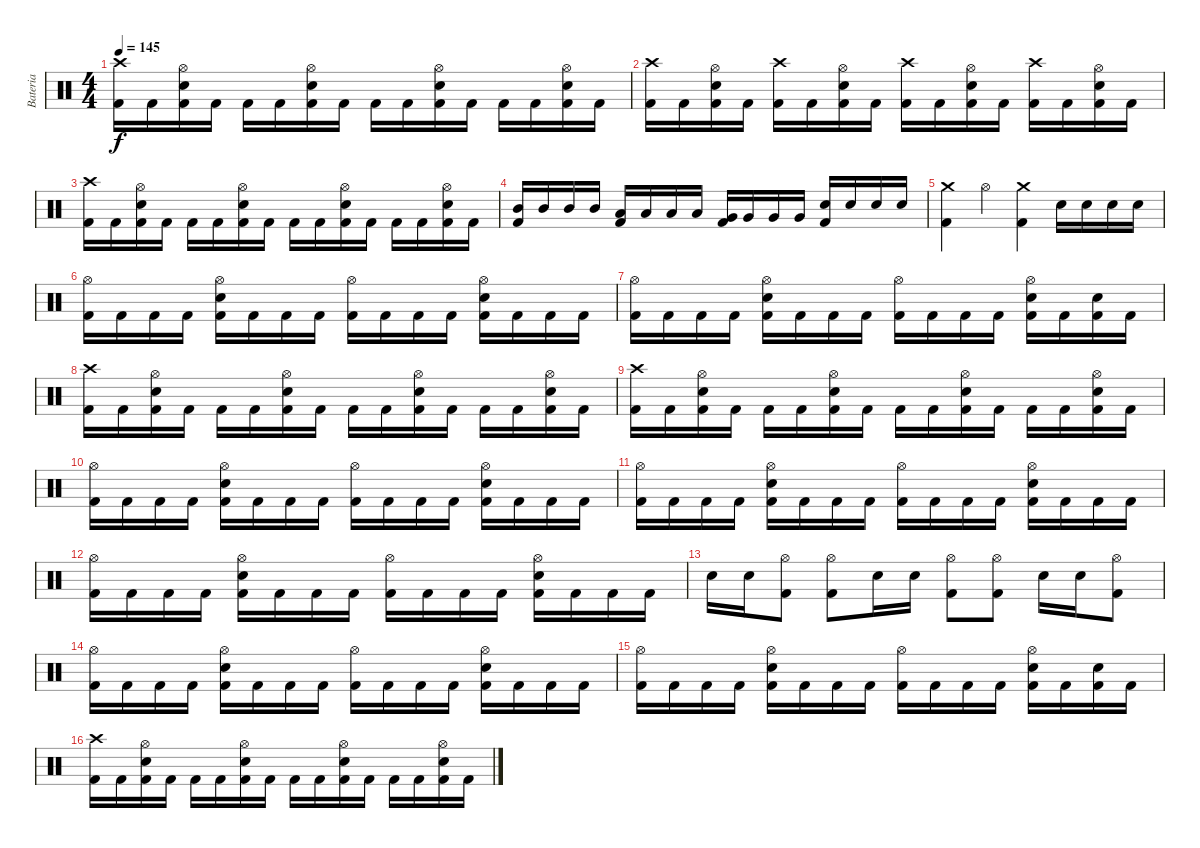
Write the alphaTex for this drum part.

\track ("Bateria" "Bateria") {instrument percussion}
\staff {score}
\articulation defaults
\ts (4 4)
\tempo 145
\clef neutral
\ks c
("Crash high (hit)" "Kick (hit) 2").16{dy f} "Kick (hit) 2".16 ("Snare (hit) 2" "Hi-Hat (open)" "Kick (hit) 2").16 "Kick (hit) 2".16 "Kick (hit) 2".16 "Kick (hit) 2".16 ("Snare (hit) 2" "Hi-Hat (open)" "Kick (hit) 2").16 "Kick (hit) 2".16 "Kick (hit) 2".16 "Kick (hit) 2".16 ("Snare (hit) 2" "Hi-Hat (open)" "Kick (hit) 2").16 "Kick (hit) 2".16 "Kick (hit) 2".16 "Kick (hit) 2".16 ("Snare (hit) 2" "Hi-Hat (open)" "Kick (hit) 2").16 "Kick (hit) 2".16 |
("Crash high (hit)" "Kick (hit) 2").16 "Kick (hit) 2".16 ("Snare (hit) 2" "Hi-Hat (open)" "Kick (hit) 2").16 "Kick (hit) 2".16 ("Crash high (hit)" "Kick (hit) 2").16 "Kick (hit) 2".16 ("Snare (hit) 2" "Hi-Hat (open)" "Kick (hit) 2").16 "Kick (hit) 2".16 ("Crash high (hit)" "Kick (hit) 2").16 "Kick (hit) 2".16 ("Snare (hit) 2" "Hi-Hat (open)" "Kick (hit) 2").16 "Kick (hit) 2".16 ("Crash high (hit)" "Kick (hit) 2").16 "Kick (hit) 2".16 ("Snare (hit) 2" "Hi-Hat (open)" "Kick (hit) 2").16 "Kick (hit) 2".16 |
("Crash high (hit)" "Kick (hit) 2").16 "Kick (hit) 2".16 ("Snare (hit) 2" "Hi-Hat (open)" "Kick (hit) 2").16 "Kick (hit) 2".16 "Kick (hit) 2".16 "Kick (hit) 2".16 ("Snare (hit) 2" "Hi-Hat (open)" "Kick (hit) 2").16 "Kick (hit) 2".16 "Kick (hit) 2".16 "Kick (hit) 2".16 ("Snare (hit) 2" "Hi-Hat (open)" "Kick (hit) 2").16 "Kick (hit) 2".16 "Kick (hit) 2".16 "Kick (hit) 2".16 ("Snare (hit) 2" "Hi-Hat (open)" "Kick (hit) 2").16 "Kick (hit) 2".16 |
("Kick (hit) 2" "Mid Tom (hit)").16 "Mid Tom (hit)".16 "Mid Tom (hit)".16 "Mid Tom (hit)".16 ("Kick (hit) 2" "Low Tom (hit)").16 "Low Tom (hit)".16 "Low Tom (hit)".16 "Low Tom (hit)".16 ("Kick (hit) 2" "Very Low Tom (hit)").16 "Very Low Tom (hit)".16 "Very Low Tom (hit)".16 "Very Low Tom (hit)".16 ("Kick (hit) 2" "Snare (hit) 2").16 "Snare (hit) 2".16 "Snare (hit) 2".16 "Snare (hit) 2".16 |
("Crash medium (hit)" "Kick (hit) 2").4 "Hi-Hat (open)".4 ("Crash medium (hit)" "Kick (hit) 2").4 "Snare (hit) 2".16 "Snare (hit) 2".16 "Snare (hit) 2".16 "Snare (hit) 2".16 |
("Hi-Hat (open)" "Kick (hit) 2").16 "Kick (hit) 2".16 "Kick (hit) 2".16 "Kick (hit) 2".16 ("Snare (hit) 2" "Hi-Hat (open)" "Kick (hit) 2").16 "Kick (hit) 2".16 "Kick (hit) 2".16 "Kick (hit) 2".16 ("Hi-Hat (open)" "Kick (hit) 2").16 "Kick (hit) 2".16 "Kick (hit) 2".16 "Kick (hit) 2".16 ("Snare (hit) 2" "Hi-Hat (open)" "Kick (hit) 2").16 "Kick (hit) 2".16 "Kick (hit) 2".16 "Kick (hit) 2".16 |
("Hi-Hat (open)" "Kick (hit) 2").16 "Kick (hit) 2".16 "Kick (hit) 2".16 "Kick (hit) 2".16 ("Snare (hit) 2" "Hi-Hat (open)" "Kick (hit) 2").16 "Kick (hit) 2".16 "Kick (hit) 2".16 "Kick (hit) 2".16 ("Hi-Hat (open)" "Kick (hit) 2").16 "Kick (hit) 2".16 "Kick (hit) 2".16 "Kick (hit) 2".16 ("Snare (hit) 2" "Hi-Hat (open)" "Kick (hit) 2").16 "Kick (hit) 2".16 ("Snare (hit) 2" "Kick (hit) 2").16 "Kick (hit) 2".16 |
("Crash high (hit)" "Kick (hit) 2").16 "Kick (hit) 2".16 ("Snare (hit) 2" "Hi-Hat (open)" "Kick (hit) 2").16 "Kick (hit) 2".16 "Kick (hit) 2".16 "Kick (hit) 2".16 ("Snare (hit) 2" "Hi-Hat (open)" "Kick (hit) 2").16 "Kick (hit) 2".16 "Kick (hit) 2".16 "Kick (hit) 2".16 ("Snare (hit) 2" "Hi-Hat (open)" "Kick (hit) 2").16 "Kick (hit) 2".16 "Kick (hit) 2".16 "Kick (hit) 2".16 ("Snare (hit) 2" "Hi-Hat (open)" "Kick (hit) 2").16 "Kick (hit) 2".16 |
("Crash high (hit)" "Kick (hit) 2").16 "Kick (hit) 2".16 ("Snare (hit) 2" "Hi-Hat (open)" "Kick (hit) 2").16 "Kick (hit) 2".16 "Kick (hit) 2".16 "Kick (hit) 2".16 ("Snare (hit) 2" "Hi-Hat (open)" "Kick (hit) 2").16 "Kick (hit) 2".16 "Kick (hit) 2".16 "Kick (hit) 2".16 ("Snare (hit) 2" "Hi-Hat (open)" "Kick (hit) 2").16 "Kick (hit) 2".16 "Kick (hit) 2".16 "Kick (hit) 2".16 ("Snare (hit) 2" "Hi-Hat (open)" "Kick (hit) 2").16 "Kick (hit) 2".16 |
("Hi-Hat (open)" "Kick (hit) 2").16 "Kick (hit) 2".16 "Kick (hit) 2".16 "Kick (hit) 2".16 ("Snare (hit) 2" "Hi-Hat (open)" "Kick (hit) 2").16 "Kick (hit) 2".16 "Kick (hit) 2".16 "Kick (hit) 2".16 ("Hi-Hat (open)" "Kick (hit) 2").16 "Kick (hit) 2".16 "Kick (hit) 2".16 "Kick (hit) 2".16 ("Snare (hit) 2" "Hi-Hat (open)" "Kick (hit) 2").16 "Kick (hit) 2".16 "Kick (hit) 2".16 "Kick (hit) 2".16 |
("Hi-Hat (open)" "Kick (hit) 2").16 "Kick (hit) 2".16 "Kick (hit) 2".16 "Kick (hit) 2".16 ("Snare (hit) 2" "Hi-Hat (open)" "Kick (hit) 2").16 "Kick (hit) 2".16 "Kick (hit) 2".16 "Kick (hit) 2".16 ("Hi-Hat (open)" "Kick (hit) 2").16 "Kick (hit) 2".16 "Kick (hit) 2".16 "Kick (hit) 2".16 ("Snare (hit) 2" "Hi-Hat (open)" "Kick (hit) 2").16 "Kick (hit) 2".16 "Kick (hit) 2".16 "Kick (hit) 2".16 |
("Hi-Hat (open)" "Kick (hit) 2").16 "Kick (hit) 2".16 "Kick (hit) 2".16 "Kick (hit) 2".16 ("Snare (hit) 2" "Hi-Hat (open)" "Kick (hit) 2").16 "Kick (hit) 2".16 "Kick (hit) 2".16 "Kick (hit) 2".16 ("Hi-Hat (open)" "Kick (hit) 2").16 "Kick (hit) 2".16 "Kick (hit) 2".16 "Kick (hit) 2".16 ("Snare (hit) 2" "Hi-Hat (open)" "Kick (hit) 2").16 "Kick (hit) 2".16 "Kick (hit) 2".16 "Kick (hit) 2".16 |
"Snare (hit) 2".16 "Snare (hit) 2".16 ("Hi-Hat (open)" "Kick (hit) 2").8 ("Hi-Hat (open)" "Kick (hit) 2").8 "Snare (hit) 2".16 "Snare (hit) 2".16 ("Hi-Hat (open)" "Kick (hit) 2").8 ("Hi-Hat (open)" "Kick (hit) 2").8 "Snare (hit) 2".16 "Snare (hit) 2".16 ("Hi-Hat (open)" "Kick (hit) 2").8 |
("Hi-Hat (open)" "Kick (hit) 2").16 "Kick (hit) 2".16 "Kick (hit) 2".16 "Kick (hit) 2".16 ("Snare (hit) 2" "Hi-Hat (open)" "Kick (hit) 2").16 "Kick (hit) 2".16 "Kick (hit) 2".16 "Kick (hit) 2".16 ("Hi-Hat (open)" "Kick (hit) 2").16 "Kick (hit) 2".16 "Kick (hit) 2".16 "Kick (hit) 2".16 ("Snare (hit) 2" "Hi-Hat (open)" "Kick (hit) 2").16 "Kick (hit) 2".16 "Kick (hit) 2".16 "Kick (hit) 2".16 |
("Hi-Hat (open)" "Kick (hit) 2").16 "Kick (hit) 2".16 "Kick (hit) 2".16 "Kick (hit) 2".16 ("Snare (hit) 2" "Hi-Hat (open)" "Kick (hit) 2").16 "Kick (hit) 2".16 "Kick (hit) 2".16 "Kick (hit) 2".16 ("Hi-Hat (open)" "Kick (hit) 2").16 "Kick (hit) 2".16 "Kick (hit) 2".16 "Kick (hit) 2".16 ("Snare (hit) 2" "Hi-Hat (open)" "Kick (hit) 2").16 "Kick (hit) 2".16 ("Snare (hit) 2" "Kick (hit) 2").16 "Kick (hit) 2".16 |
("Crash high (hit)" "Kick (hit) 2").16 "Kick (hit) 2".16 ("Snare (hit) 2" "Hi-Hat (open)" "Kick (hit) 2").16 "Kick (hit) 2".16 "Kick (hit) 2".16 "Kick (hit) 2".16 ("Snare (hit) 2" "Hi-Hat (open)" "Kick (hit) 2").16 "Kick (hit) 2".16 "Kick (hit) 2".16 "Kick (hit) 2".16 ("Snare (hit) 2" "Hi-Hat (open)" "Kick (hit) 2").16 "Kick (hit) 2".16 "Kick (hit) 2".16 "Kick (hit) 2".16 ("Snare (hit) 2" "Hi-Hat (open)" "Kick (hit) 2").16 "Kick (hit) 2".16
